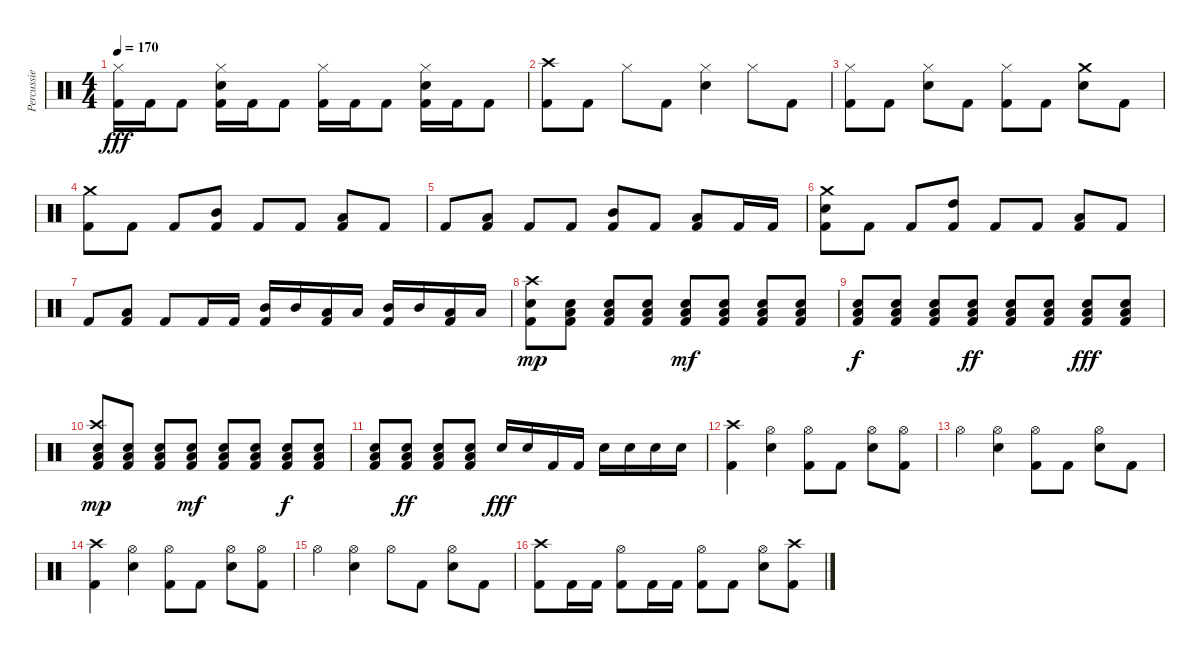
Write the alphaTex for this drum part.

\track ("Percussie" "Percussie") {instrument percussion}
\staff {score}
\articulation defaults
\ts (4 4)
\tempo 170
\clef neutral
\ks c
("Hi-Hat (closed)" "Kick (hit) 2").16{dy fff} "Kick (hit) 2".16 "Kick (hit) 2".8 ("Hi-Hat (closed)" "Electric Snare (hit)" "Kick (hit) 2").16 "Kick (hit) 2".16 "Kick (hit) 2".8 ("Hi-Hat (closed)" "Kick (hit) 2").16 "Kick (hit) 2".16 "Kick (hit) 2".8 ("Hi-Hat (closed)" "Electric Snare (hit)" "Kick (hit) 2").16 "Kick (hit) 2".16 "Kick (hit) 2".8 |
("Crash high (hit)" "Kick (hit) 2").8 "Kick (hit) 2".8 "Hi-Hat (closed)".8 "Kick (hit) 2".8 ("Hi-Hat (closed)" "Electric Snare (hit)").4 "Hi-Hat (closed)".8 "Kick (hit) 2".8 |
("Hi-Hat (closed)" "Kick (hit) 2").8 "Kick (hit) 2".8 ("Hi-Hat (closed)" "Electric Snare (hit)").8 "Kick (hit) 2".8 ("Hi-Hat (closed)" "Kick (hit) 2").8 "Kick (hit) 2".8 ("Crash medium (hit)" "Electric Snare (hit)").8 "Kick (hit) 2".8 |
("Crash medium (hit)" "Kick (hit) 2").8 "Kick (hit) 2".8 "Kick (hit) 2".8 ("Mid Tom (hit)" "Kick (hit) 2").8 "Kick (hit) 2".8 "Kick (hit) 2".8 ("Low Tom (hit)" "Kick (hit) 2").8 "Kick (hit) 2".8 |
"Kick (hit) 2".8 ("Low Floor Tom (hit)" "Kick (hit) 2").8 "Kick (hit) 2".8 "Kick (hit) 2".8 ("Mid Tom (hit)" "Kick (hit) 2").8 "Kick (hit) 2".8 ("Low Tom (hit)" "Kick (hit) 2").8 "Kick (hit) 2".16 "Kick (hit) 2".16 |
("Crash medium (hit)" "Electric Snare (hit)" "Kick (hit) 2").8 "Kick (hit) 2".8 "Kick (hit) 2".8 ("High Tom (hit)" "Kick (hit) 2").8 "Kick (hit) 2".8 "Kick (hit) 2".8 ("Low Tom (hit)" "Kick (hit) 2").8 "Kick (hit) 2".8 |
"Kick (hit) 2".8 ("Low Floor Tom (hit)" "Kick (hit) 2").8 "Kick (hit) 2".8 "Kick (hit) 2".16 "Kick (hit) 2".16 ("Mid Tom (hit)" "Kick (hit) 2").16 "Mid Tom (hit)".16 ("Low Tom (hit)" "Kick (hit) 2").16 "Low Tom (hit)".16 ("Mid Tom (hit)" "Kick (hit) 2").16 "Mid Tom (hit)".16 ("Low Tom (hit)" "Kick (hit) 2").16 "Low Tom (hit)".16 |
("Crash high (hit)" "Electric Snare (hit)" "Kick (hit) 2").8{dy mp} ("Electric Snare (hit)" "Low Floor Tom (hit)" "Kick (hit) 2").8 ("Electric Snare (hit)" "Low Floor Tom (hit)" "Kick (hit) 2").8 ("Electric Snare (hit)" "Low Floor Tom (hit)" "Kick (hit) 2").8 ("Electric Snare (hit)" "Low Floor Tom (hit)" "Kick (hit) 2").8{dy mf} ("Electric Snare (hit)" "Low Floor Tom (hit)" "Kick (hit) 2").8 ("Electric Snare (hit)" "Low Floor Tom (hit)" "Kick (hit) 2").8 ("Electric Snare (hit)" "Low Floor Tom (hit)" "Kick (hit) 2").8 |
("Electric Snare (hit)" "Low Floor Tom (hit)" "Kick (hit) 2").8{dy f} ("Electric Snare (hit)" "Low Floor Tom (hit)" "Kick (hit) 2").8 ("Electric Snare (hit)" "Low Floor Tom (hit)" "Kick (hit) 2").8 ("Electric Snare (hit)" "Low Floor Tom (hit)" "Kick (hit) 2").8{dy ff} ("Electric Snare (hit)" "Low Floor Tom (hit)" "Kick (hit) 2").8 ("Electric Snare (hit)" "Low Floor Tom (hit)" "Kick (hit) 2").8 ("Electric Snare (hit)" "Low Floor Tom (hit)" "Kick (hit) 2").8{dy fff} ("Electric Snare (hit)" "Low Floor Tom (hit)" "Kick (hit) 2").8 |
("Crash high (hit)" "Electric Snare (hit)" "Low Floor Tom (hit)" "Kick (hit) 2").8{dy mp} ("Electric Snare (hit)" "Low Floor Tom (hit)" "Kick (hit) 2").8 ("Electric Snare (hit)" "Low Floor Tom (hit)" "Kick (hit) 2").8 ("Electric Snare (hit)" "Low Floor Tom (hit)" "Kick (hit) 2").8{dy mf} ("Electric Snare (hit)" "Low Floor Tom (hit)" "Kick (hit) 2").8 ("Electric Snare (hit)" "Low Floor Tom (hit)" "Kick (hit) 2").8 ("Electric Snare (hit)" "Low Floor Tom (hit)" "Kick (hit) 2").8{dy f} ("Electric Snare (hit)" "Low Floor Tom (hit)" "Kick (hit) 2").8 |
("Electric Snare (hit)" "Low Floor Tom (hit)" "Kick (hit) 2").8 ("Electric Snare (hit)" "Low Floor Tom (hit)" "Kick (hit) 2").8{dy ff} ("Electric Snare (hit)" "Low Floor Tom (hit)" "Kick (hit) 2").8 ("Electric Snare (hit)" "Low Floor Tom (hit)" "Kick (hit) 2").8 "Electric Snare (hit)".16{dy fff} "Electric Snare (hit)".16 "Kick (hit) 2".16 "Kick (hit) 2".16 "Electric Snare (hit)".16 "Electric Snare (hit)".16 "Electric Snare (hit)".16 "Electric Snare (hit)".16 |
("Crash high (hit)" "Kick (hit) 2").4 ("Hi-Hat (open)" "Electric Snare (hit)").4 ("Hi-Hat (open)" "Kick (hit) 2").8 "Kick (hit) 2".8 ("Hi-Hat (open)" "Electric Snare (hit)").8 ("Hi-Hat (open)" "Kick (hit) 2").8 |
"Hi-Hat (open)".4 ("Hi-Hat (open)" "Electric Snare (hit)").4 ("Hi-Hat (open)" "Kick (hit) 2").8 "Kick (hit) 2".8 ("Hi-Hat (open)" "Electric Snare (hit)").8 "Kick (hit) 2".8 |
("Crash high (hit)" "Kick (hit) 2").4 ("Hi-Hat (open)" "Electric Snare (hit)").4 ("Hi-Hat (open)" "Kick (hit) 2").8 "Kick (hit) 2".8 ("Hi-Hat (open)" "Electric Snare (hit)").8 ("Hi-Hat (open)" "Kick (hit) 2").8 |
"Hi-Hat (open)".4 ("Hi-Hat (open)" "Electric Snare (hit)").4 "Hi-Hat (open)".8 "Kick (hit) 2".8 ("Hi-Hat (open)" "Electric Snare (hit)").8 "Kick (hit) 2".8 |
("Crash high (hit)" "Kick (hit) 2").8 "Kick (hit) 2".16 "Kick (hit) 2".16 ("Hi-Hat (open)" "Kick (hit) 2").8 "Kick (hit) 2".16 "Kick (hit) 2".16 ("Hi-Hat (open)" "Kick (hit) 2").8 "Kick (hit) 2".8 ("Hi-Hat (open)" "Electric Snare (hit)").8 ("Crash high (hit)" "Kick (hit) 2").8
